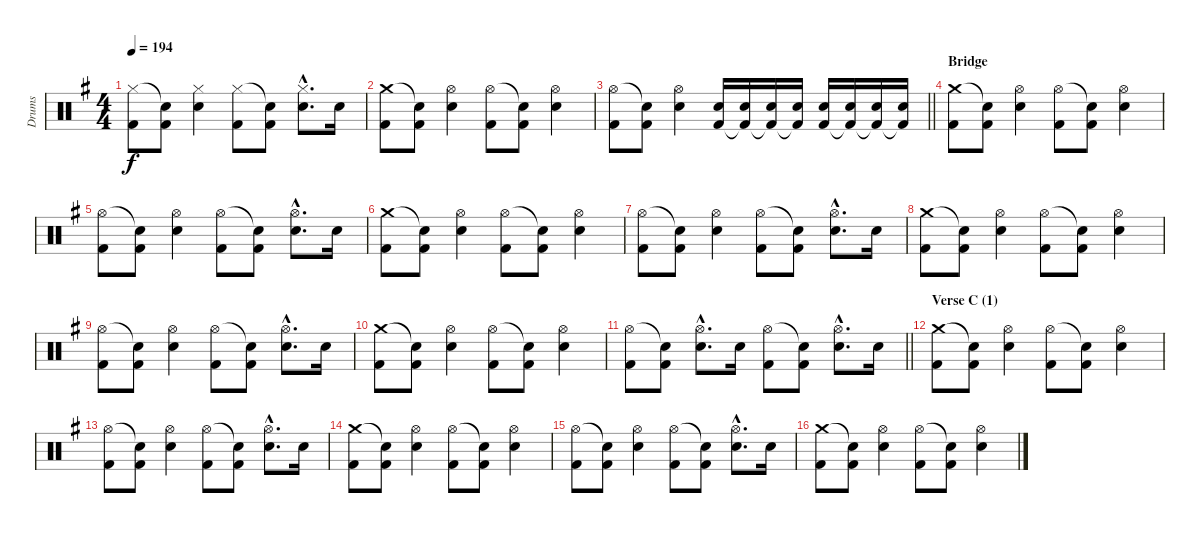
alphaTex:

\track ("Drums" "Drums") {instrument percussion}
\staff {score}
\articulation defaults
\ts (4 4)
\tempo 194
\clef neutral
\ks eminor
("Hi-Hat (closed)" "Kick (hit) 2").8{dy f} ("Snare (hit)"{t} "Kick (hit) 2").8 ("Hi-Hat (closed)" "Electric Snare (hit)").4 ("Hi-Hat (closed)" "Kick (hit) 2").8 ("Snare (hit)"{t} "Kick (hit) 2").8 ("Hi-Hat (closed)"{hac} "Electric Snare (hit)"{hac}).8{d} "Electric Snare (hit)".16 |
("Crash medium (hit)" "Kick (hit) 2").8 ("Snare (hit)"{t} "Kick (hit) 2").8 ("Hi-Hat (open)" "Electric Snare (hit)").4 ("Hi-Hat (open)" "Kick (hit) 2").8 ("Snare (hit)"{t} "Kick (hit) 2").8 ("Hi-Hat (open)" "Electric Snare (hit)").4 |
\barLineRight lightlight
("Hi-Hat (open)" "Kick (hit) 2").8 ("Snare (hit)"{t} "Kick (hit) 2").8 ("Hi-Hat (open)" "Electric Snare (hit)").4 ("Electric Snare (hit)" "Kick (hit) 2").16 ("Electric Snare (hit)" "Kick (hit) 2"{t}).16 ("Electric Snare (hit)" "Kick (hit) 2"{t}).16 ("Electric Snare (hit)" "Kick (hit) 2"{t}).16 ("Electric Snare (hit)" "Kick (hit) 2").16 ("Electric Snare (hit)" "Kick (hit) 2"{t}).16 ("Electric Snare (hit)" "Kick (hit) 2"{t}).16 ("Electric Snare (hit)" "Kick (hit) 2"{t}).16 |
\section ("" "Bridge")
("Crash medium (hit)" "Kick (hit) 2").8 ("Snare (hit)"{t} "Kick (hit) 2").8 ("Hi-Hat (open)" "Electric Snare (hit)").4 ("Hi-Hat (open)" "Kick (hit) 2").8 ("Snare (hit)"{t} "Kick (hit) 2").8 ("Hi-Hat (open)" "Electric Snare (hit)").4 |
("Hi-Hat (open)" "Kick (hit) 2").8 ("Snare (hit)"{t} "Kick (hit) 2").8 ("Hi-Hat (open)" "Electric Snare (hit)").4 ("Hi-Hat (open)" "Kick (hit) 2").8 ("Snare (hit)"{t} "Kick (hit) 2").8 ("Hi-Hat (open)"{hac} "Electric Snare (hit)"{hac}).8{d} "Electric Snare (hit)".16 |
("Crash medium (hit)" "Kick (hit) 2").8 ("Snare (hit)"{t} "Kick (hit) 2").8 ("Hi-Hat (open)" "Electric Snare (hit)").4 ("Hi-Hat (open)" "Kick (hit) 2").8 ("Snare (hit)"{t} "Kick (hit) 2").8 ("Hi-Hat (open)" "Electric Snare (hit)").4 |
("Hi-Hat (open)" "Kick (hit) 2").8 ("Snare (hit)"{t} "Kick (hit) 2").8 ("Hi-Hat (open)" "Electric Snare (hit)").4 ("Hi-Hat (open)" "Kick (hit) 2").8 ("Snare (hit)"{t} "Kick (hit) 2").8 ("Hi-Hat (open)"{hac} "Electric Snare (hit)"{hac}).8{d} "Electric Snare (hit)".16 |
("Crash medium (hit)" "Kick (hit) 2").8 ("Snare (hit)"{t} "Kick (hit) 2").8 ("Hi-Hat (open)" "Electric Snare (hit)").4 ("Hi-Hat (open)" "Kick (hit) 2").8 ("Snare (hit)"{t} "Kick (hit) 2").8 ("Hi-Hat (open)" "Electric Snare (hit)").4 |
("Hi-Hat (open)" "Kick (hit) 2").8 ("Snare (hit)"{t} "Kick (hit) 2").8 ("Hi-Hat (open)" "Electric Snare (hit)").4 ("Hi-Hat (open)" "Kick (hit) 2").8 ("Snare (hit)"{t} "Kick (hit) 2").8 ("Hi-Hat (open)"{hac} "Electric Snare (hit)"{hac}).8{d} "Electric Snare (hit)".16 |
("Crash medium (hit)" "Kick (hit) 2").8 ("Snare (hit)"{t} "Kick (hit) 2").8 ("Hi-Hat (open)" "Electric Snare (hit)").4 ("Hi-Hat (open)" "Kick (hit) 2").8 ("Snare (hit)"{t} "Kick (hit) 2").8 ("Hi-Hat (open)" "Electric Snare (hit)").4 |
\barLineRight lightlight
("Hi-Hat (open)" "Kick (hit) 2").8 ("Snare (hit)"{t} "Kick (hit) 2").8 ("Hi-Hat (open)"{hac} "Electric Snare (hit)"{hac}).8{d} "Electric Snare (hit)".16 ("Hi-Hat (open)" "Kick (hit) 2").8 ("Snare (hit)"{t} "Kick (hit) 2").8 ("Hi-Hat (open)"{hac} "Electric Snare (hit)"{hac}).8{d} "Electric Snare (hit)".16 |
\section ("" "Verse C (1)")
("Crash medium (hit)" "Kick (hit) 2").8 ("Snare (hit)"{t} "Kick (hit) 2").8 ("Hi-Hat (open)" "Electric Snare (hit)").4 ("Hi-Hat (open)" "Kick (hit) 2").8 ("Snare (hit)"{t} "Kick (hit) 2").8 ("Hi-Hat (open)" "Electric Snare (hit)").4 |
("Hi-Hat (open)" "Kick (hit) 2").8 ("Snare (hit)"{t} "Kick (hit) 2").8 ("Hi-Hat (open)" "Electric Snare (hit)").4 ("Hi-Hat (open)" "Kick (hit) 2").8 ("Snare (hit)"{t} "Kick (hit) 2").8 ("Hi-Hat (open)"{hac} "Electric Snare (hit)"{hac}).8{d} "Electric Snare (hit)".16 |
("Crash medium (hit)" "Kick (hit) 2").8 ("Snare (hit)"{t} "Kick (hit) 2").8 ("Hi-Hat (open)" "Electric Snare (hit)").4 ("Hi-Hat (open)" "Kick (hit) 2").8 ("Snare (hit)"{t} "Kick (hit) 2").8 ("Hi-Hat (open)" "Electric Snare (hit)").4 |
("Hi-Hat (open)" "Kick (hit) 2").8 ("Snare (hit)"{t} "Kick (hit) 2").8 ("Hi-Hat (open)" "Electric Snare (hit)").4 ("Hi-Hat (open)" "Kick (hit) 2").8 ("Snare (hit)"{t} "Kick (hit) 2").8 ("Hi-Hat (open)"{hac} "Electric Snare (hit)"{hac}).8{d} "Electric Snare (hit)".16 |
("Crash medium (hit)" "Kick (hit) 2").8 ("Snare (hit)"{t} "Kick (hit) 2").8 ("Hi-Hat (open)" "Electric Snare (hit)").4 ("Hi-Hat (open)" "Kick (hit) 2").8 ("Snare (hit)"{t} "Kick (hit) 2").8 ("Hi-Hat (open)" "Electric Snare (hit)").4
